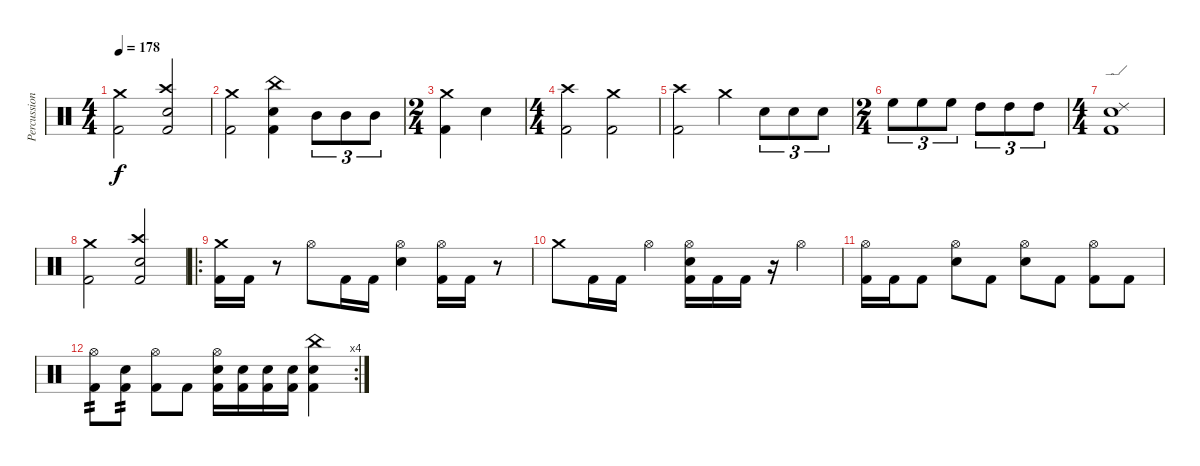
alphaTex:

\track ("Percussion" "Percussion") {instrument percussion}
\staff {score}
\articulation defaults
\ts (4 4)
\tempo 178
\clef neutral
\ks c
("Crash medium (hit)" "Kick (hit) 2").2{dy f} ("Crash high (hit)" "Snare (hit) 2" "Kick (hit) 2").2 |
("Crash medium (hit)" "Kick (hit) 2").2 ("China (hit)" "Snare (hit) 2" "Kick (hit) 2").4 "Mid Tom (hit)".8{tu (3 2)} "Mid Tom (hit)".8{tu (3 2)} "Mid Tom (hit)".8{tu (3 2)} |
\ts (2 4)
("Crash medium (hit)" "Kick (hit) 2").4 "Snare (hit) 2".4 |
\ts (4 4)
("Crash high (hit)" "Kick (hit) 2").2 ("Crash medium (hit)" "Kick (hit) 2").2 |
("Crash high (hit)" "Kick (hit) 2").2 "Crash medium (hit)".4 "Snare (hit) 2".8{tu (3 2)} "Snare (hit) 2".8{tu (3 2)} "Snare (hit) 2".8{tu (3 2)} |
\ts (2 4)
"High Floor Tom (hit)".8{tu (3 2)} "High Floor Tom (hit)".8{tu (3 2)} "High Floor Tom (hit)".8{tu (3 2)} "High Tom (hit)".8{tu (3 2)} "High Tom (hit)".8{tu (3 2)} "High Tom (hit)".8{tu (3 2)} |
\ts (4 4)
("Ride (edge) 2" "Snare (hit) 2" "Kick (hit) 2").1 |
("Crash medium (hit)" "Kick (hit) 2").2 ("Crash high (hit)" "Snare (hit) 2" "Kick (hit) 2").2 |
\ro
("Crash medium (hit)" "Kick (hit) 2").16 "Kick (hit) 2".16 r.8 "Hi-Hat (open)".8 "Kick (hit) 2".16 "Kick (hit) 2".16 ("Hi-Hat (open)" "Snare (hit) 2").4 ("Hi-Hat (open)" "Kick (hit) 2").16 "Kick (hit) 2".16 r.8 |
"Crash medium (hit)".8 "Kick (hit) 2".16 "Kick (hit) 2".16 "Hi-Hat (open)".4 ("Hi-Hat (open)" "Snare (hit) 2" "Kick (hit) 2").16 "Kick (hit) 2".16 "Kick (hit) 2".16 r.16 "Hi-Hat (open)".4 |
("Hi-Hat (open)" "Kick (hit) 2").16 "Kick (hit) 2".16 "Kick (hit) 2".8 ("Hi-Hat (open)" "Snare (hit) 2").8 "Kick (hit) 2".8 ("Hi-Hat (open)" "Snare (hit) 2").8 "Kick (hit) 2".8 ("Hi-Hat (open)" "Kick (hit) 2").8 "Kick (hit) 2".8 |
\rc 4
("Hi-Hat (open)" "Kick (hit) 2").8{tp 2} ("Snare (hit) 2" "Kick (hit) 2").8{tp 2} ("Hi-Hat (open)" "Kick (hit) 2").8 "Kick (hit) 2".8 ("Hi-Hat (open)" "Snare (hit) 2" "Kick (hit) 2").16 ("Snare (hit) 2" "Kick (hit) 2").16 ("Snare (hit) 2" "Kick (hit) 2").16 ("Snare (hit) 2" "Kick (hit) 2").16 ("China (hit)" "Snare (hit) 2" "Kick (hit) 2").4
